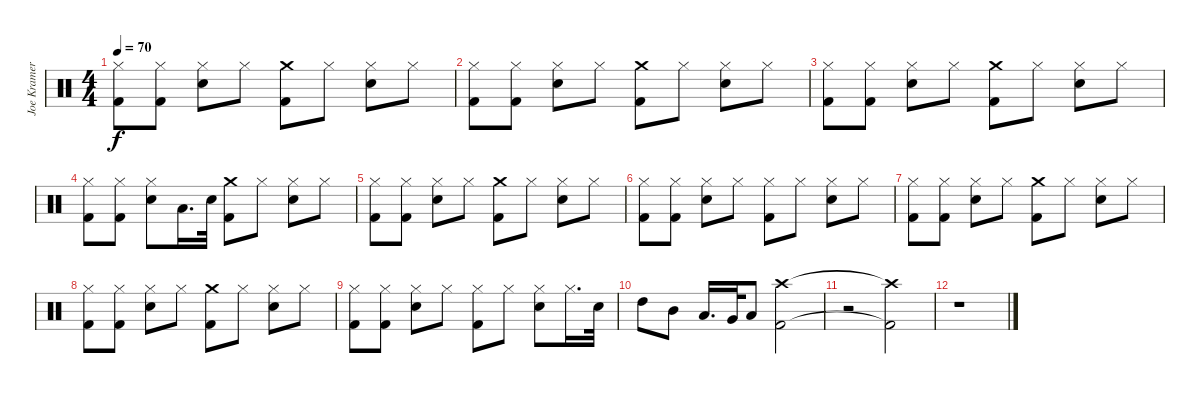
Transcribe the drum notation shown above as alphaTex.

\track ("Joe Kramer" "Joe Kramer") {instrument percussion}
\staff {score}
\articulation defaults
\ts (4 4)
\tempo 70
\clef neutral
\ks c
("Hi-Hat (closed)" "Kick (hit) 2").8{dy f} ("Hi-Hat (closed)" "Kick (hit) 2").8 ("Hi-Hat (closed)" "Snare (hit) 2").8 "Hi-Hat (closed)".8 ("Crash medium (hit)" "Kick (hit) 2").8 "Hi-Hat (closed)".8 ("Hi-Hat (closed)" "Snare (hit) 2").8 "Hi-Hat (closed)".8 |
("Hi-Hat (closed)" "Kick (hit) 2").8 ("Hi-Hat (closed)" "Kick (hit) 2").8 ("Hi-Hat (closed)" "Snare (hit) 2").8 "Hi-Hat (closed)".8 ("Crash medium (hit)" "Kick (hit) 2").8 "Hi-Hat (closed)".8 ("Hi-Hat (closed)" "Snare (hit) 2").8 "Hi-Hat (closed)".8 |
("Hi-Hat (closed)" "Kick (hit) 2").8 ("Hi-Hat (closed)" "Kick (hit) 2").8 ("Hi-Hat (closed)" "Snare (hit) 2").8 "Hi-Hat (closed)".8 ("Crash medium (hit)" "Kick (hit) 2").8 "Hi-Hat (closed)".8 ("Hi-Hat (closed)" "Snare (hit) 2").8 "Hi-Hat (closed)".8 |
("Hi-Hat (closed)" "Kick (hit) 2").8 ("Hi-Hat (closed)" "Kick (hit) 2").8 ("Hi-Hat (closed)" "Snare (hit) 2").8 "Low Tom (hit)".16{d} "Snare (hit) 2".32 ("Crash medium (hit)" "Kick (hit) 2").8 "Hi-Hat (closed)".8 ("Hi-Hat (closed)" "Snare (hit) 2").8 "Hi-Hat (closed)".8 |
("Hi-Hat (closed)" "Kick (hit) 2").8 ("Hi-Hat (closed)" "Kick (hit) 2").8 ("Hi-Hat (closed)" "Snare (hit) 2").8 "Hi-Hat (closed)".8 ("Crash medium (hit)" "Kick (hit) 2").8 "Hi-Hat (closed)".8 ("Hi-Hat (closed)" "Snare (hit) 2").8 "Hi-Hat (closed)".8 |
("Hi-Hat (closed)" "Kick (hit) 2").8 ("Hi-Hat (closed)" "Kick (hit) 2").8 ("Hi-Hat (closed)" "Snare (hit) 2").8 "Hi-Hat (closed)".8 ("Hi-Hat (closed)" "Kick (hit) 2").8 "Hi-Hat (closed)".8 ("Hi-Hat (closed)" "Snare (hit) 2").8 "Hi-Hat (closed)".8 |
("Hi-Hat (closed)" "Kick (hit) 2").8 ("Hi-Hat (closed)" "Kick (hit) 2").8 ("Hi-Hat (closed)" "Snare (hit) 2").8 "Hi-Hat (closed)".8 ("Crash medium (hit)" "Kick (hit) 2").8 "Hi-Hat (closed)".8 ("Hi-Hat (closed)" "Snare (hit) 2").8 "Hi-Hat (closed)".8 |
("Hi-Hat (closed)" "Kick (hit) 2").8 ("Hi-Hat (closed)" "Kick (hit) 2").8 ("Hi-Hat (closed)" "Snare (hit) 2").8 "Hi-Hat (closed)".8 ("Crash medium (hit)" "Kick (hit) 2").8 "Hi-Hat (closed)".8 ("Hi-Hat (closed)" "Snare (hit) 2").8 "Hi-Hat (closed)".8 |
("Hi-Hat (closed)" "Kick (hit) 2").8 ("Hi-Hat (closed)" "Kick (hit) 2").8 ("Hi-Hat (closed)" "Snare (hit) 2").8 "Hi-Hat (closed)".8 ("Hi-Hat (closed)" "Kick (hit) 2").8 "Hi-Hat (closed)".8 ("Hi-Hat (closed)" "Snare (hit) 2").8 "Hi-Hat (closed)".16{d} "Snare (hit) 2".32 |
"High Tom (hit)".8 "Mid Tom (hit)".8 "Low Tom (hit)".16{d} "Very Low Tom (hit)".32 "Low Floor Tom (hit)".8 ("Crash high (hit)" "Kick (hit) 2").2 |
r.2 ("Crash high (hit)"{t} "Kick (hit) 2"{t}).2 |
r.1
